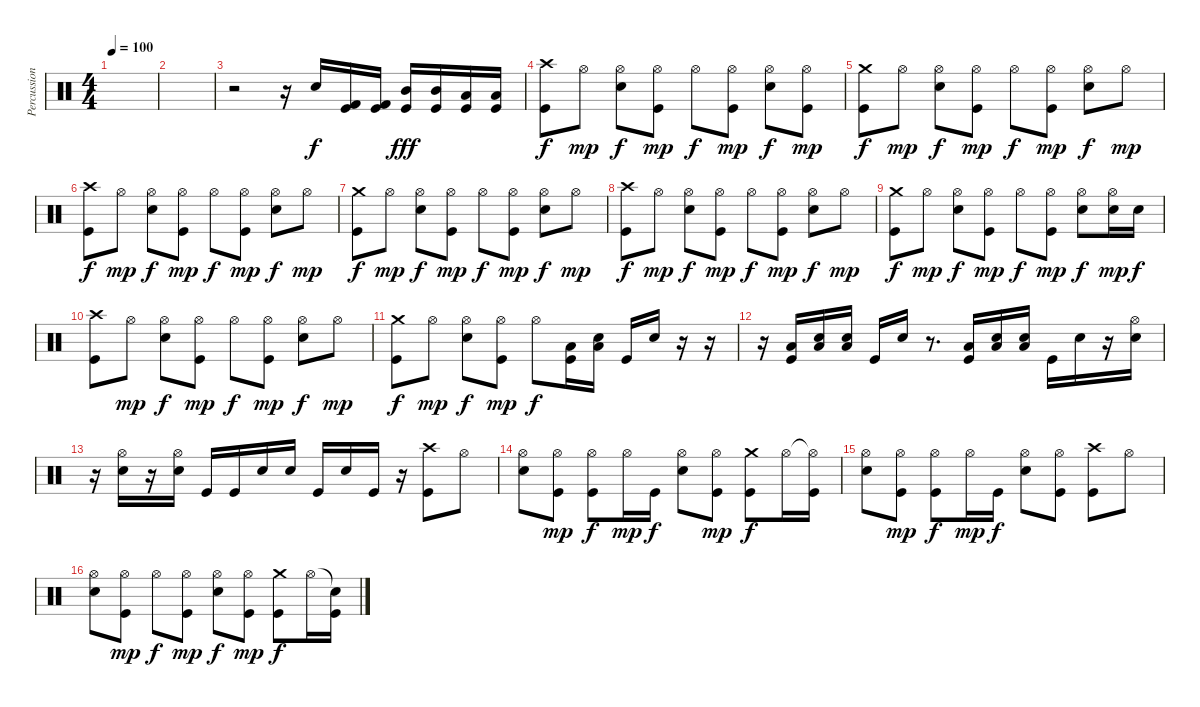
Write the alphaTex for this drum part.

\track ("Percussion" "Percussion") {instrument percussion}
\staff {score}
\articulation defaults
\ts (4 4)
\tempo 100
\clef neutral
\ks c
|
|
r.2 r.16 "Snare (hit) 2".16{dy f} ("Kick (hit) 2" "Kick (hit)").16 ("Kick (hit) 2" "Kick (hit)").16 ("Mid Tom (hit)" "Kick (hit)").16{dy fff} ("Mid Tom (hit)" "Kick (hit)").16 ("Low Tom (hit)" "Kick (hit)").16 ("Low Tom (hit)" "Kick (hit)").16 |
("Crash high (hit)" "Kick (hit)").8{dy f} "Hi-Hat (open)".8{dy mp} ("Hi-Hat (open)" "Electric Snare (hit)").8{dy f} ("Hi-Hat (open)" "Kick (hit)").8{dy mp} "Hi-Hat (open)".8{dy f} ("Hi-Hat (open)" "Kick (hit)").8{dy mp} ("Hi-Hat (open)" "Electric Snare (hit)").8{dy f} ("Hi-Hat (open)" "Kick (hit)").8{dy mp} |
("Crash medium (hit)" "Kick (hit)").8{dy f} "Hi-Hat (open)".8{dy mp} ("Hi-Hat (open)" "Electric Snare (hit)").8{dy f} ("Hi-Hat (open)" "Kick (hit)").8{dy mp} "Hi-Hat (open)".8{dy f} ("Hi-Hat (open)" "Kick (hit)").8{dy mp} ("Hi-Hat (open)" "Electric Snare (hit)").8{dy f} "Hi-Hat (open)".8{dy mp} |
("Crash high (hit)" "Kick (hit)").8{dy f} "Hi-Hat (open)".8{dy mp} ("Hi-Hat (open)" "Electric Snare (hit)").8{dy f} ("Hi-Hat (open)" "Kick (hit)").8{dy mp} "Hi-Hat (open)".8{dy f} ("Hi-Hat (open)" "Kick (hit)").8{dy mp} ("Hi-Hat (open)" "Electric Snare (hit)").8{dy f} "Hi-Hat (open)".8{dy mp} |
("Crash medium (hit)" "Kick (hit)").8{dy f} "Hi-Hat (open)".8{dy mp} ("Hi-Hat (open)" "Electric Snare (hit)").8{dy f} ("Hi-Hat (open)" "Kick (hit)").8{dy mp} "Hi-Hat (open)".8{dy f} ("Hi-Hat (open)" "Kick (hit)").8{dy mp} ("Hi-Hat (open)" "Electric Snare (hit)").8{dy f} "Hi-Hat (open)".8{dy mp} |
("Crash high (hit)" "Kick (hit)").8{dy f} "Hi-Hat (open)".8{dy mp} ("Hi-Hat (open)" "Electric Snare (hit)").8{dy f} ("Hi-Hat (open)" "Kick (hit)").8{dy mp} "Hi-Hat (open)".8{dy f} ("Hi-Hat (open)" "Kick (hit)").8{dy mp} ("Hi-Hat (open)" "Electric Snare (hit)").8{dy f} "Hi-Hat (open)".8{dy mp} |
("Crash medium (hit)" "Kick (hit)").8{dy f} "Hi-Hat (open)".8{dy mp} ("Hi-Hat (open)" "Electric Snare (hit)").8{dy f} ("Hi-Hat (open)" "Kick (hit)").8{dy mp} "Hi-Hat (open)".8{dy f} ("Hi-Hat (open)" "Kick (hit)").8{dy mp} ("Hi-Hat (open)" "Electric Snare (hit)").8{dy f} ("Hi-Hat (open)" "Electric Snare (hit)").16{dy mp} "Electric Snare (hit)".16{dy f} |
("Crash high (hit)" "Kick (hit)").8 "Hi-Hat (open)".8{dy mp} ("Hi-Hat (open)" "Electric Snare (hit)").8{dy f} ("Hi-Hat (open)" "Kick (hit)").8{dy mp} "Hi-Hat (open)".8{dy f} ("Hi-Hat (open)" "Kick (hit)").8{dy mp} ("Hi-Hat (open)" "Electric Snare (hit)").8{dy f} "Hi-Hat (open)".8{dy mp} |
("Crash medium (hit)" "Kick (hit)").8{dy f} "Hi-Hat (open)".8{dy mp} ("Hi-Hat (open)" "Electric Snare (hit)").8{dy f} ("Hi-Hat (open)" "Kick (hit)").8{dy mp} "Hi-Hat (open)".8{dy f} ("Low Floor Tom (hit)" "Kick (hit)").16 ("Low Floor Tom (hit)" "Electric Snare (hit)").16 "Kick (hit)".16 "Electric Snare (hit)".16 r.16 r.16 |
r.16 ("Low Floor Tom (hit)" "Kick (hit)").16 ("Low Floor Tom (hit)" "Electric Snare (hit)").16 ("Low Floor Tom (hit)" "Electric Snare (hit)").16 "Kick (hit)".16 "Electric Snare (hit)".16 r.8{d} ("Low Floor Tom (hit)" "Kick (hit)").16 ("Low Floor Tom (hit)" "Electric Snare (hit)").16 ("Low Floor Tom (hit)" "Electric Snare (hit)").16 "Kick (hit)".16 "Electric Snare (hit)".16 r.16 ("Hi-Hat (open)" "Electric Snare (hit)").16 |
r.16 ("Hi-Hat (open)" "Electric Snare (hit)").16 r.16 ("Hi-Hat (open)" "Electric Snare (hit)").16 "Kick (hit)".16 "Kick (hit)".16 "Electric Snare (hit)".16 "Electric Snare (hit)".16 "Kick (hit)".16 "Electric Snare (hit)".16 "Kick (hit)".16 r.16 ("Crash high (hit)" "Kick (hit)").8 "Hi-Hat (open)".8 |
("Hi-Hat (open)" "Electric Snare (hit)").8 ("Hi-Hat (open)" "Kick (hit)").8{dy mp} ("Hi-Hat (open)" "Kick (hit)").8{dy f} "Hi-Hat (open)".16{dy mp} "Kick (hit)".16{dy f} ("Hi-Hat (open)" "Electric Snare (hit)").8 ("Hi-Hat (open)" "Kick (hit)").8{dy mp} ("Crash medium (hit)" "Kick (hit)").8{dy f} "Hi-Hat (open)".16 ("Hi-Hat (open)"{t} "Kick (hit)").16 |
("Hi-Hat (open)" "Electric Snare (hit)").8 ("Hi-Hat (open)" "Kick (hit)").8{dy mp} ("Hi-Hat (open)" "Kick (hit)").8{dy f} "Hi-Hat (open)".16{dy mp} "Kick (hit)".16{dy f} ("Hi-Hat (open)" "Electric Snare (hit)").8 ("Hi-Hat (open)" "Kick (hit)").8 ("Crash high (hit)" "Kick (hit)").8 "Hi-Hat (open)".8 |
("Hi-Hat (open)" "Electric Snare (hit)").8 ("Hi-Hat (open)" "Kick (hit)").8{dy mp} "Hi-Hat (open)".8{dy f} ("Hi-Hat (open)" "Kick (hit)").8{dy mp} ("Hi-Hat (open)" "Electric Snare (hit)").8{dy f} ("Hi-Hat (open)" "Kick (hit)").8{dy mp} ("Crash medium (hit)" "Kick (hit)").8{dy f} "Hi-Hat (open)".16 ("Snare (hit)"{t} "Kick (hit)").16
